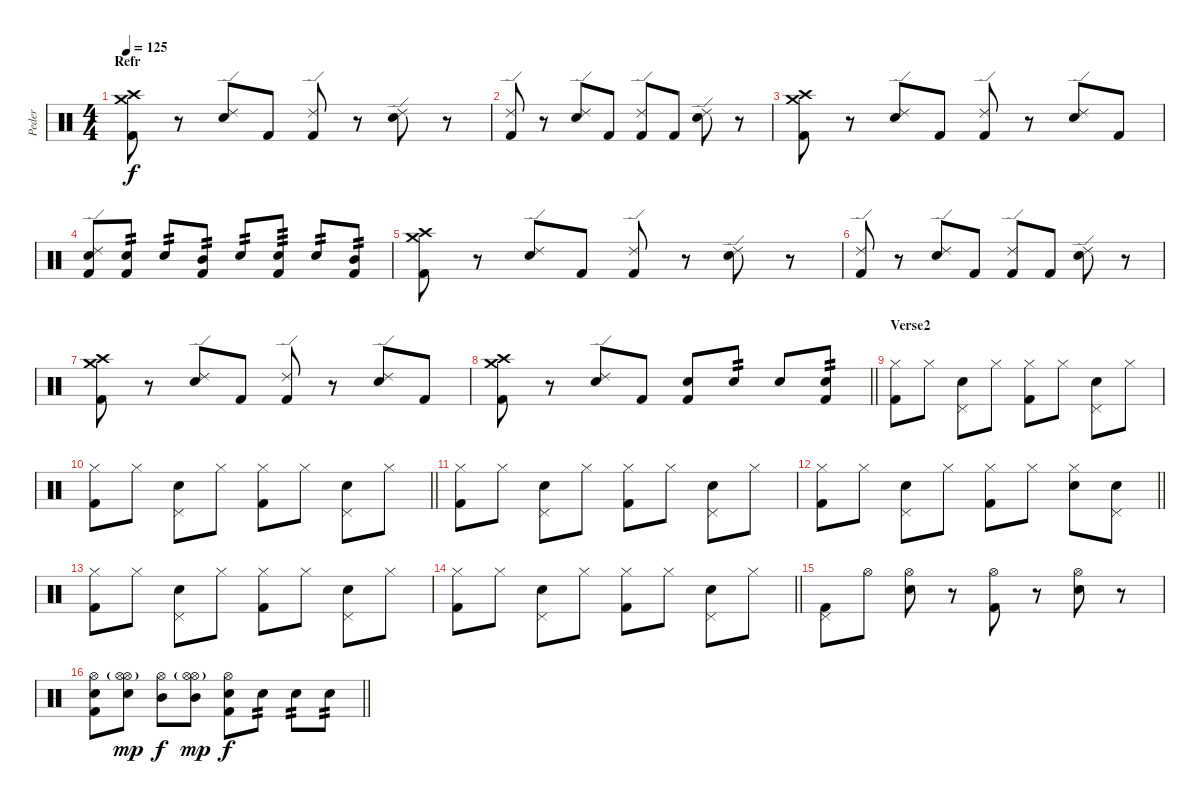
\track ("Peder" "Peder") {instrument percussion}
\staff {score}
\articulation defaults
\ts (4 4)
\section ("" "Refr")
\tempo 125
\clef neutral
\ks c
("Crash medium (hit)" "Crash high (hit)" "Kick (hit) 2").8{dy f} r.8 ("Ride (edge) 2" "Electric Snare (hit)").8 "Kick (hit) 2".8 ("Ride (edge) 2" "Kick (hit) 2").8 r.8 ("Ride (edge) 2" "Electric Snare (hit)").8 r.8 |
("Ride (edge) 2" "Kick (hit) 2").8 r.8 ("Ride (edge) 2" "Electric Snare (hit)").8 "Kick (hit) 2".8 ("Ride (edge) 2" "Kick (hit) 2").8 "Kick (hit) 2".8 ("Ride (edge) 2" "Electric Snare (hit)").8 r.8 |
("Crash medium (hit)" "Crash high (hit)" "Kick (hit) 2").8 r.8 ("Ride (edge) 2" "Electric Snare (hit)").8 "Kick (hit) 2".8 ("Ride (edge) 2" "Kick (hit) 2").8 r.8 ("Ride (edge) 2" "Electric Snare (hit)").8 "Kick (hit) 2".8 |
("Ride (edge) 2" "Electric Snare (hit)" "Kick (hit) 2").8 ("Electric Snare (hit)" "Kick (hit) 2").8{tp 2} "Electric Snare (hit)".8{tp 2} ("Mid Tom (hit)" "Kick (hit) 2").8{tp 2} "Electric Snare (hit)".8{tp 2} ("Electric Snare (hit)" "Kick (hit) 2").8{tp 3} "Electric Snare (hit)".8{tp 2} ("Mid Tom (hit)" "Kick (hit) 2").8{tp 2} |
("Crash medium (hit)" "Crash high (hit)" "Kick (hit) 2").8 r.8 ("Ride (edge) 2" "Electric Snare (hit)").8 "Kick (hit) 2".8 ("Ride (edge) 2" "Kick (hit) 2").8 r.8 ("Ride (edge) 2" "Electric Snare (hit)").8 r.8 |
("Ride (edge) 2" "Kick (hit) 2").8 r.8 ("Ride (edge) 2" "Electric Snare (hit)").8 "Kick (hit) 2".8 ("Ride (edge) 2" "Kick (hit) 2").8 "Kick (hit) 2".8 ("Ride (edge) 2" "Electric Snare (hit)").8 r.8 |
("Crash medium (hit)" "Crash high (hit)" "Kick (hit) 2").8 r.8 ("Ride (edge) 2" "Electric Snare (hit)").8 "Kick (hit) 2".8 ("Ride (edge) 2" "Kick (hit) 2").8 r.8 ("Ride (edge) 2" "Electric Snare (hit)").8 "Kick (hit) 2".8 |
\barLineRight lightlight
("Crash medium (hit)" "Crash high (hit)" "Kick (hit) 2").8 r.8 ("Ride (edge) 2" "Electric Snare (hit)").8 "Kick (hit) 2".8 ("Electric Snare (hit)" "Kick (hit) 2").8 "Electric Snare (hit)".8{tp 2} "Electric Snare (hit)".8 ("Electric Snare (hit)" "Kick (hit) 2").8{tp 2} |
\section ("" "Verse2")
("Hi-Hat (closed)" "Kick (hit) 2").8 "Hi-Hat (closed)".8 ("Pedal Hi-Hat (hit)" "Electric Snare (hit)").8 "Hi-Hat (closed)".8 ("Hi-Hat (closed)" "Kick (hit) 2").8 "Hi-Hat (closed)".8 ("Pedal Hi-Hat (hit)" "Electric Snare (hit)").8 "Hi-Hat (closed)".8 |
\barLineRight lightlight
("Hi-Hat (closed)" "Kick (hit) 2").8 "Hi-Hat (closed)".8 ("Pedal Hi-Hat (hit)" "Electric Snare (hit)").8 "Hi-Hat (closed)".8 ("Hi-Hat (closed)" "Kick (hit) 2").8 "Hi-Hat (closed)".8 ("Pedal Hi-Hat (hit)" "Electric Snare (hit)").8 "Hi-Hat (closed)".8 |
("Hi-Hat (closed)" "Kick (hit) 2").8 "Hi-Hat (closed)".8 ("Pedal Hi-Hat (hit)" "Electric Snare (hit)").8 "Hi-Hat (closed)".8 ("Hi-Hat (closed)" "Kick (hit) 2").8 "Hi-Hat (closed)".8 ("Pedal Hi-Hat (hit)" "Electric Snare (hit)").8 "Hi-Hat (closed)".8 |
\barLineRight lightlight
("Hi-Hat (closed)" "Kick (hit) 2").8 "Hi-Hat (closed)".8 ("Pedal Hi-Hat (hit)" "Electric Snare (hit)").8 "Hi-Hat (closed)".8 ("Hi-Hat (closed)" "Kick (hit) 2").8 "Hi-Hat (closed)".8 ("Hi-Hat (closed)" "Electric Snare (hit)").8 ("Pedal Hi-Hat (hit)" "Electric Snare (hit)").8 |
("Hi-Hat (closed)" "Kick (hit) 2").8 "Hi-Hat (closed)".8 ("Pedal Hi-Hat (hit)" "Electric Snare (hit)").8 "Hi-Hat (closed)".8 ("Hi-Hat (closed)" "Kick (hit) 2").8 "Hi-Hat (closed)".8 ("Pedal Hi-Hat (hit)" "Electric Snare (hit)").8 "Hi-Hat (closed)".8 |
\barLineRight lightlight
("Hi-Hat (closed)" "Kick (hit) 2").8 "Hi-Hat (closed)".8 ("Pedal Hi-Hat (hit)" "Electric Snare (hit)").8 "Hi-Hat (closed)".8 ("Hi-Hat (closed)" "Kick (hit) 2").8 "Hi-Hat (closed)".8 ("Pedal Hi-Hat (hit)" "Electric Snare (hit)").8 "Hi-Hat (closed)".8 |
("Pedal Hi-Hat (hit)" "Kick (hit) 2").8 "Hi-Hat (open)".8 ("Hi-Hat (open)" "Electric Snare (hit)").8 r.8 ("Hi-Hat (open)" "Kick (hit) 2").8 r.8 ("Hi-Hat (open)" "Electric Snare (hit)").8 r.8 |
\barLineRight lightlight
("Hi-Hat (open)" "Electric Snare (hit)" "Kick (hit) 2").8 ("Hi-Hat (open)"{g} "Hi-Hat (open)"{g} "Electric Snare (hit)").8{dy mp} ("Hi-Hat (open)" "Mid Tom (hit)").8{dy f} ("Hi-Hat (open)"{g} "Hi-Hat (open)"{g} "Mid Tom (hit)").8{dy mp} ("Hi-Hat (open)" "Electric Snare (hit)" "Kick (hit) 2").8{dy f} "Electric Snare (hit)".8{tp 2} "Electric Snare (hit)".8{tp 2} "Electric Snare (hit)".8{tp 2}
